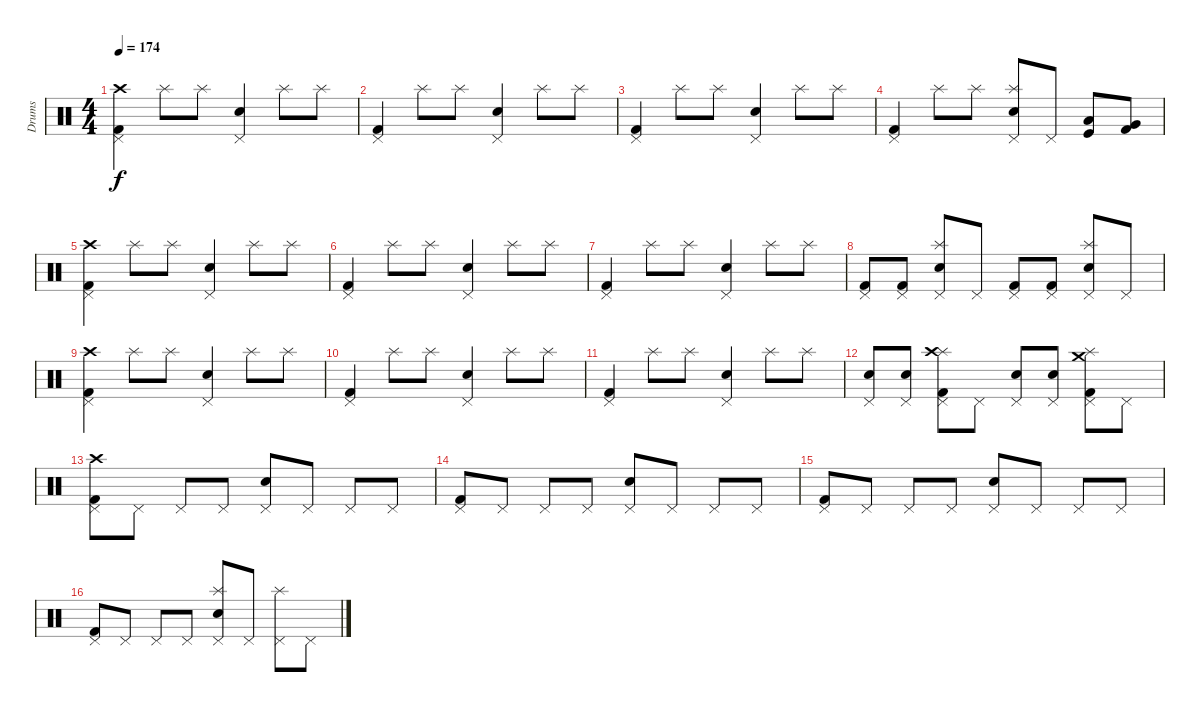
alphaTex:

\track ("Drums" "Drums") {instrument percussion}
\staff {score}
\articulation defaults
\ts (4 4)
\tempo 174
\clef neutral
\ks c
("Kick (hit) 2" "Pedal Hi-Hat (hit)" "Crash high (hit)").4{dy f} "Splash (hit)".8 "Splash (hit)".8 ("Snare (hit) 2" "Pedal Hi-Hat (hit)").4 "Splash (hit)".8 "Splash (hit)".8 |
("Kick (hit) 2" "Pedal Hi-Hat (hit)").4 "Splash (hit)".8 "Splash (hit)".8 ("Snare (hit) 2" "Pedal Hi-Hat (hit)").4 "Splash (hit)".8 "Splash (hit)".8 |
("Kick (hit) 2" "Pedal Hi-Hat (hit)").4 "Splash (hit)".8 "Splash (hit)".8 ("Snare (hit) 2" "Pedal Hi-Hat (hit)").4 "Splash (hit)".8 "Splash (hit)".8 |
("Kick (hit) 2" "Pedal Hi-Hat (hit)").4 "Splash (hit)".8 "Splash (hit)".8 ("Snare (hit) 2" "Pedal Hi-Hat (hit)" "Splash (hit)").8 "Pedal Hi-Hat (hit)".8 ("Low Tom (hit)" "Kick (hit)").8 ("Very Low Tom (hit)" "Kick (hit) 2").8 |
("Kick (hit) 2" "Pedal Hi-Hat (hit)" "Crash high (hit)").4 "Splash (hit)".8 "Splash (hit)".8 ("Snare (hit) 2" "Pedal Hi-Hat (hit)").4 "Splash (hit)".8 "Splash (hit)".8 |
("Kick (hit) 2" "Pedal Hi-Hat (hit)").4 "Splash (hit)".8 "Splash (hit)".8 ("Snare (hit) 2" "Pedal Hi-Hat (hit)").4 "Splash (hit)".8 "Splash (hit)".8 |
("Kick (hit) 2" "Pedal Hi-Hat (hit)").4 "Splash (hit)".8 "Splash (hit)".8 ("Snare (hit) 2" "Pedal Hi-Hat (hit)").4 "Splash (hit)".8 "Splash (hit)".8 |
("Kick (hit) 2" "Pedal Hi-Hat (hit)").8 ("Kick (hit) 2" "Pedal Hi-Hat (hit)").8 ("Snare (hit) 2" "Pedal Hi-Hat (hit)" "Splash (hit)").8 "Pedal Hi-Hat (hit)".8 ("Kick (hit) 2" "Pedal Hi-Hat (hit)").8 ("Kick (hit) 2" "Pedal Hi-Hat (hit)").8 ("Snare (hit) 2" "Pedal Hi-Hat (hit)" "Splash (hit)").8 "Pedal Hi-Hat (hit)".8 |
("Kick (hit) 2" "Pedal Hi-Hat (hit)" "Crash high (hit)").4 "Splash (hit)".8 "Splash (hit)".8 ("Snare (hit) 2" "Pedal Hi-Hat (hit)").4 "Splash (hit)".8 "Splash (hit)".8 |
("Kick (hit) 2" "Pedal Hi-Hat (hit)").4 "Splash (hit)".8 "Splash (hit)".8 ("Snare (hit) 2" "Pedal Hi-Hat (hit)").4 "Splash (hit)".8 "Splash (hit)".8 |
("Kick (hit) 2" "Pedal Hi-Hat (hit)").4 "Splash (hit)".8 "Splash (hit)".8 ("Snare (hit) 2" "Pedal Hi-Hat (hit)").4 "Splash (hit)".8 "Splash (hit)".8 |
("Snare (hit) 2" "Pedal Hi-Hat (hit)").8 ("Snare (hit) 2" "Pedal Hi-Hat (hit)").8 ("Kick (hit) 2" "Pedal Hi-Hat (hit)" "Splash (hit)" "Crash high (hit)").8 "Pedal Hi-Hat (hit)".8 ("Snare (hit) 2" "Pedal Hi-Hat (hit)").8 ("Snare (hit) 2" "Pedal Hi-Hat (hit)").8 ("Kick (hit) 2" "Pedal Hi-Hat (hit)" "Splash (hit)" "Crash medium (hit)").8 "Pedal Hi-Hat (hit)".8 |
("Kick (hit) 2" "Pedal Hi-Hat (hit)" "Crash high (hit)").8 "Pedal Hi-Hat (hit)".8 "Pedal Hi-Hat (hit)".8 "Pedal Hi-Hat (hit)".8 ("Snare (hit) 2" "Pedal Hi-Hat (hit)").8 "Pedal Hi-Hat (hit)".8 "Pedal Hi-Hat (hit)".8 "Pedal Hi-Hat (hit)".8 |
("Kick (hit) 2" "Pedal Hi-Hat (hit)").8 "Pedal Hi-Hat (hit)".8 "Pedal Hi-Hat (hit)".8 "Pedal Hi-Hat (hit)".8 ("Snare (hit) 2" "Pedal Hi-Hat (hit)").8 "Pedal Hi-Hat (hit)".8 "Pedal Hi-Hat (hit)".8 "Pedal Hi-Hat (hit)".8 |
("Kick (hit) 2" "Pedal Hi-Hat (hit)").8 "Pedal Hi-Hat (hit)".8 "Pedal Hi-Hat (hit)".8 "Pedal Hi-Hat (hit)".8 ("Snare (hit) 2" "Pedal Hi-Hat (hit)").8 "Pedal Hi-Hat (hit)".8 "Pedal Hi-Hat (hit)".8 "Pedal Hi-Hat (hit)".8 |
("Kick (hit) 2" "Pedal Hi-Hat (hit)").8 "Pedal Hi-Hat (hit)".8 "Pedal Hi-Hat (hit)".8 "Pedal Hi-Hat (hit)".8 ("Snare (hit) 2" "Pedal Hi-Hat (hit)" "Splash (hit)").8 "Pedal Hi-Hat (hit)".8 ("Pedal Hi-Hat (hit)" "Splash (hit)").8 "Pedal Hi-Hat (hit)".8
